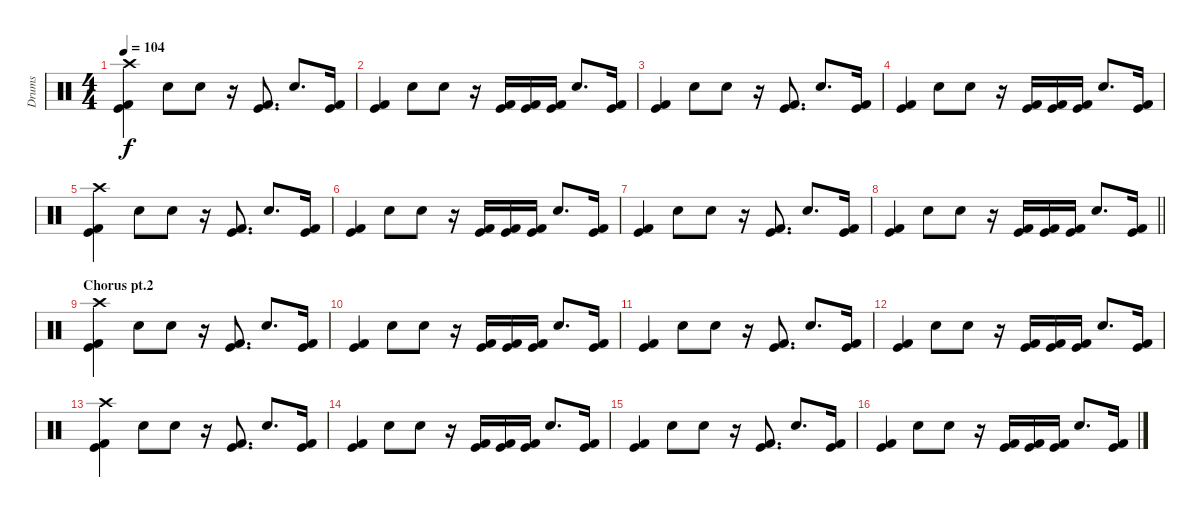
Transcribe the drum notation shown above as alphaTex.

\track ("Drums" "Drums") {instrument percussion}
\staff {score}
\articulation defaults
\ts (4 4)
\tempo 104
\clef neutral
\ks c
("Crash high (hit)" "Kick (hit) 2" "Kick (hit)").4{dy f} "Snare (hit) 2".8 "Snare (hit) 2".8 r.16 ("Kick (hit) 2" "Kick (hit)").8{d} "Snare (hit) 2".8{d} ("Kick (hit) 2" "Kick (hit)").16 |
("Kick (hit) 2" "Kick (hit)").4 "Snare (hit) 2".8 "Snare (hit) 2".8 r.16 ("Kick (hit) 2" "Kick (hit)").16 ("Kick (hit) 2" "Kick (hit)").16 ("Kick (hit) 2" "Kick (hit)").16 "Snare (hit) 2".8{d} ("Kick (hit) 2" "Kick (hit)").16 |
("Kick (hit) 2" "Kick (hit)").4 "Snare (hit) 2".8 "Snare (hit) 2".8 r.16 ("Kick (hit) 2" "Kick (hit)").8{d} "Snare (hit) 2".8{d} ("Kick (hit) 2" "Kick (hit)").16 |
("Kick (hit) 2" "Kick (hit)").4 "Snare (hit) 2".8 "Snare (hit) 2".8 r.16 ("Kick (hit) 2" "Kick (hit)").16 ("Kick (hit) 2" "Kick (hit)").16 ("Kick (hit) 2" "Kick (hit)").16 "Snare (hit) 2".8{d} ("Kick (hit) 2" "Kick (hit)").16 |
("Crash high (hit)" "Kick (hit) 2" "Kick (hit)").4 "Snare (hit) 2".8 "Snare (hit) 2".8 r.16 ("Kick (hit) 2" "Kick (hit)").8{d} "Snare (hit) 2".8{d} ("Kick (hit) 2" "Kick (hit)").16 |
("Kick (hit) 2" "Kick (hit)").4 "Snare (hit) 2".8 "Snare (hit) 2".8 r.16 ("Kick (hit) 2" "Kick (hit)").16 ("Kick (hit) 2" "Kick (hit)").16 ("Kick (hit) 2" "Kick (hit)").16 "Snare (hit) 2".8{d} ("Kick (hit) 2" "Kick (hit)").16 |
("Kick (hit) 2" "Kick (hit)").4 "Snare (hit) 2".8 "Snare (hit) 2".8 r.16 ("Kick (hit) 2" "Kick (hit)").8{d} "Snare (hit) 2".8{d} ("Kick (hit) 2" "Kick (hit)").16 |
\barLineRight lightlight
("Kick (hit) 2" "Kick (hit)").4 "Snare (hit) 2".8 "Snare (hit) 2".8 r.16 ("Kick (hit) 2" "Kick (hit)").16 ("Kick (hit) 2" "Kick (hit)").16 ("Kick (hit) 2" "Kick (hit)").16 "Snare (hit) 2".8{d} ("Kick (hit) 2" "Kick (hit)").16 |
\section ("" "Chorus pt.2")
("Crash high (hit)" "Kick (hit) 2" "Kick (hit)").4 "Snare (hit) 2".8 "Snare (hit) 2".8 r.16 ("Kick (hit) 2" "Kick (hit)").8{d} "Snare (hit) 2".8{d} ("Kick (hit) 2" "Kick (hit)").16 |
("Kick (hit) 2" "Kick (hit)").4 "Snare (hit) 2".8 "Snare (hit) 2".8 r.16 ("Kick (hit) 2" "Kick (hit)").16 ("Kick (hit) 2" "Kick (hit)").16 ("Kick (hit) 2" "Kick (hit)").16 "Snare (hit) 2".8{d} ("Kick (hit) 2" "Kick (hit)").16 |
("Kick (hit) 2" "Kick (hit)").4 "Snare (hit) 2".8 "Snare (hit) 2".8 r.16 ("Kick (hit) 2" "Kick (hit)").8{d} "Snare (hit) 2".8{d} ("Kick (hit) 2" "Kick (hit)").16 |
("Kick (hit) 2" "Kick (hit)").4 "Snare (hit) 2".8 "Snare (hit) 2".8 r.16 ("Kick (hit) 2" "Kick (hit)").16 ("Kick (hit) 2" "Kick (hit)").16 ("Kick (hit) 2" "Kick (hit)").16 "Snare (hit) 2".8{d} ("Kick (hit) 2" "Kick (hit)").16 |
("Crash high (hit)" "Kick (hit) 2" "Kick (hit)").4 "Snare (hit) 2".8 "Snare (hit) 2".8 r.16 ("Kick (hit) 2" "Kick (hit)").8{d} "Snare (hit) 2".8{d} ("Kick (hit) 2" "Kick (hit)").16 |
("Kick (hit) 2" "Kick (hit)").4 "Snare (hit) 2".8 "Snare (hit) 2".8 r.16 ("Kick (hit) 2" "Kick (hit)").16 ("Kick (hit) 2" "Kick (hit)").16 ("Kick (hit) 2" "Kick (hit)").16 "Snare (hit) 2".8{d} ("Kick (hit) 2" "Kick (hit)").16 |
("Kick (hit) 2" "Kick (hit)").4 "Snare (hit) 2".8 "Snare (hit) 2".8 r.16 ("Kick (hit) 2" "Kick (hit)").8{d} "Snare (hit) 2".8{d} ("Kick (hit) 2" "Kick (hit)").16 |
("Kick (hit) 2" "Kick (hit)").4 "Snare (hit) 2".8 "Snare (hit) 2".8 r.16 ("Kick (hit) 2" "Kick (hit)").16 ("Kick (hit) 2" "Kick (hit)").16 ("Kick (hit) 2" "Kick (hit)").16 "Snare (hit) 2".8{d} ("Kick (hit) 2" "Kick (hit)").16
